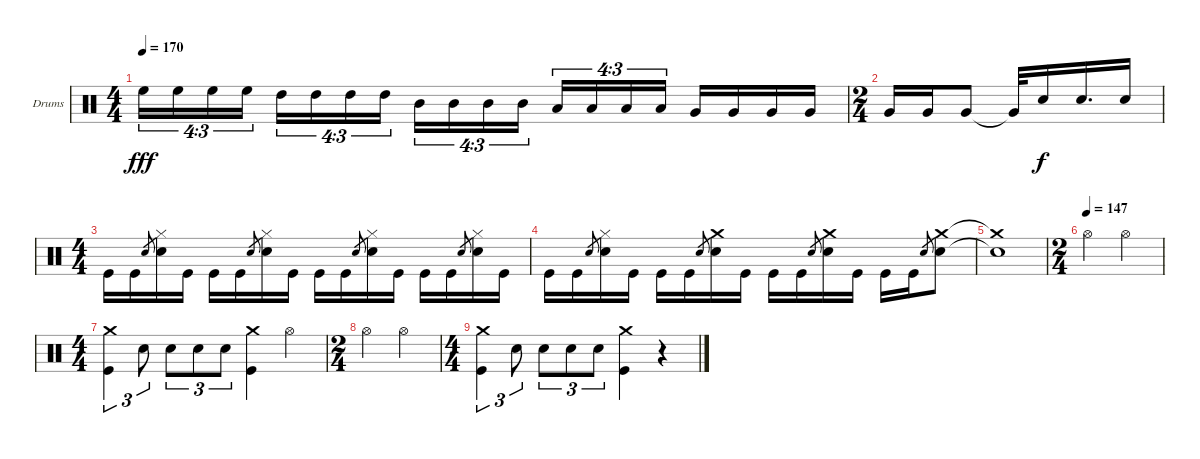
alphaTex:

\bracketExtendMode groupsimilarinstruments
\firstSystemTrackNameOrientation horizontal
\otherSystemsTrackNameOrientation horizontal
\track ("Drums" "Drums") {instrument percussion}
\staff {score}
\articulation defaults
\ts (4 4)
\tempo 170
\clef neutral
\ks c "High Floor Tom (hit)".16{tu (4 3) dy fff} "High Floor Tom (hit)".16{tu (4 3)} "High Floor Tom (hit)".16{tu (4 3)} "High Floor Tom (hit)".16{tu (4 3)} "High Tom (hit)".16{tu (4 3)} "High Tom (hit)".16{tu (4 3)} "High Tom (hit)".16{tu (4 3)} "High Tom (hit)".16{tu (4 3)} "Mid Tom (hit)".16{tu (4 3)} "Mid Tom (hit)".16{tu (4 3)} "Mid Tom (hit)".16{tu (4 3)} "Mid Tom (hit)".16{tu (4 3)} "Low Tom (hit)".16{tu (4 3)} "Low Tom (hit)".16{tu (4 3)} "Low Tom (hit)".16{tu (4 3)} "Low Tom (hit)".16{tu (4 3)} "Very Low Tom (hit)".16 "Very Low Tom (hit)".16 "Very Low Tom (hit)".16 "Very Low Tom (hit)".16
|
\ts (2 4)
"Very Low Tom (hit)".16 "Very Low Tom (hit)".16 "Very Low Tom (hit)".8 "Very Low Tom (hit)"{t}.32 "Snare (hit) 2".16{dy f} "Snare (hit) 2".16{d} "Snare (hit) 2".16 |
\ts (4 4)
"Kick (hit)".16 "Kick (hit)".16 "Snare (hit) 2".8{gr} ("Snare (hit) 2" "Hi-Hat (closed)").16 "Kick (hit)".16 "Kick (hit)".16 "Kick (hit)".16 "Snare (hit) 2".8{gr} ("Snare (hit) 2" "Hi-Hat (closed)").16 "Kick (hit)".16 "Kick (hit)".16 "Kick (hit)".16 "Snare (hit) 2".8{gr} ("Snare (hit) 2" "Hi-Hat (closed)").16 "Kick (hit)".16 "Kick (hit)".16 "Kick (hit)".16 "Snare (hit) 2".8{gr} ("Snare (hit) 2" "Hi-Hat (closed)").16 "Kick (hit)".16 |
"Kick (hit)".16 "Kick (hit)".16 "Snare (hit) 2".8{gr} ("Snare (hit) 2" "Hi-Hat (closed)").16 "Kick (hit)".16 "Kick (hit)".16 "Kick (hit)".16 "Snare (hit) 2".8{gr} ("Snare (hit) 2" "Crash medium (hit)").16 "Kick (hit)".16 "Kick (hit)".16 "Kick (hit)".16 "Snare (hit) 2".8{gr} ("Snare (hit) 2" "Crash medium (hit)").16 "Kick (hit)".16 "Kick (hit)".16 "Kick (hit)".16 "Snare (hit) 2".8{gr} ("Snare (hit) 2" "Crash medium (hit)").8 |
("Snare (hit) 2"{t} "Crash medium (hit)"{t}).1 |
\ts (2 4)
\tempo (147)
"Hi-Hat (open)".4 "Hi-Hat (open)".4 |
\ts (4 4)
("Crash medium (hit)" "Kick (hit)").4{tu (3 2)} "Snare (hit) 2".8{tu (3 2)} "Snare (hit) 2".8{tu (3 2)} "Snare (hit) 2".8{tu (3 2)} "Snare (hit) 2".8{tu (3 2)} ("Crash medium (hit)" "Kick (hit)").4 "Hi-Hat (open)".4 |
\ts (2 4)
"Hi-Hat (open)".4 "Hi-Hat (open)".4 |
\ts (4 4)
("Crash medium (hit)" "Kick (hit)").4{tu (3 2)} "Snare (hit) 2".8{tu (3 2)} "Snare (hit) 2".8{tu (3 2)} "Snare (hit) 2".8{tu (3 2)} "Snare (hit) 2".8{tu (3 2)} ("Crash medium (hit)" "Kick (hit)").4 r.4
